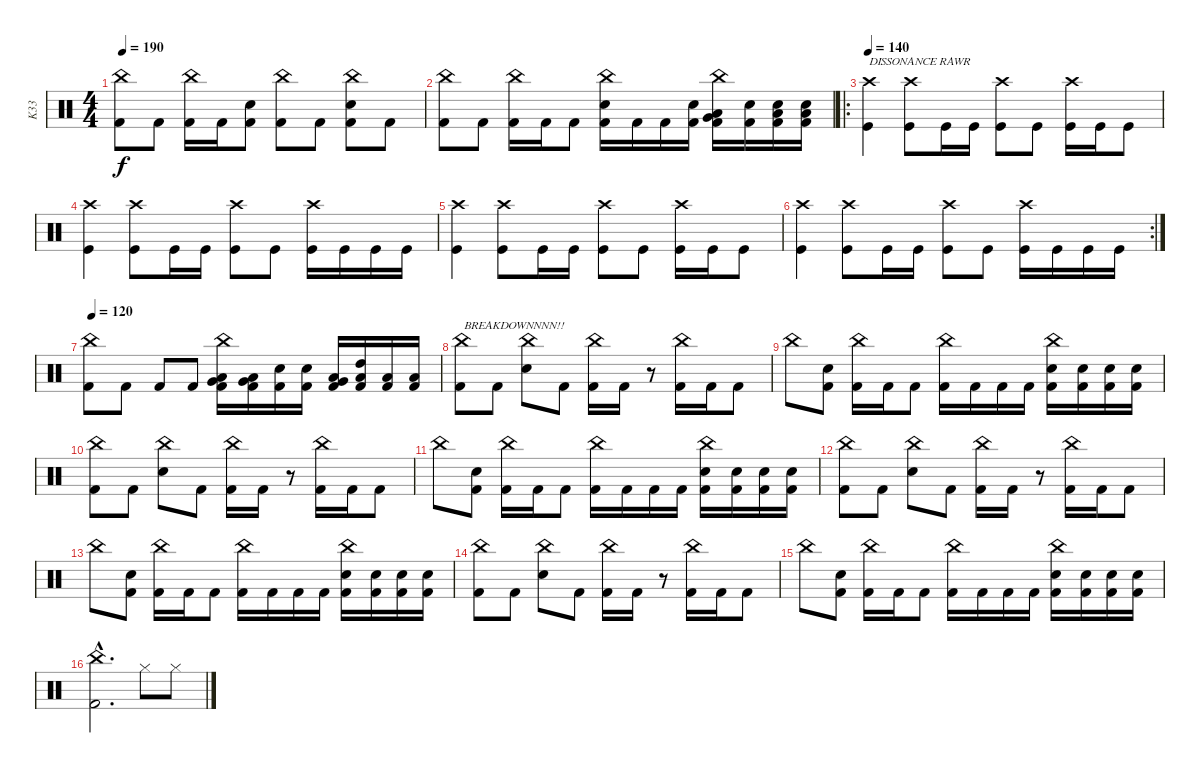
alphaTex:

\track ("K33" "K33") {instrument percussion}
\staff {score}
\articulation defaults
\ts (4 4)
\tempo 190
\clef neutral
\ks c
("China (hit)" "Kick (hit) 2").8{dy f} "Kick (hit) 2".8 ("China (hit)" "Kick (hit) 2").16 "Kick (hit) 2".16 ("Electric Snare (hit)" "Kick (hit) 2").8 ("China (hit)" "Kick (hit) 2").8 "Kick (hit) 2".8 ("China (hit)" "Electric Snare (hit)" "Kick (hit) 2").8 "Kick (hit) 2".8 |
("China (hit)" "Kick (hit) 2").8 "Kick (hit) 2".8 ("China (hit)" "Kick (hit) 2").16 "Kick (hit) 2".16 "Kick (hit) 2".8 ("China (hit)" "Electric Snare (hit)" "Kick (hit) 2").16 "Kick (hit) 2".16 "Kick (hit) 2".16 ("Electric Snare (hit)" "Kick (hit) 2").16 ("China (hit)" "Very Low Tom (hit)" "Low Floor Tom (hit)" "Kick (hit) 2").16 ("Electric Snare (hit)" "Kick (hit) 2").16 ("Low Floor Tom (hit)" "Electric Snare (hit)" "Kick (hit) 2").16 ("Low Floor Tom (hit)" "Electric Snare (hit)" "Kick (hit) 2").16 |
\ro
\tempo 140
("Crash high (hit)" "Kick (hit)").4{txt "DISSONANCE RAWR"} ("Crash high (hit)" "Kick (hit)").8 "Kick (hit)".16 "Kick (hit)".16 ("Crash high (hit)" "Kick (hit)").8 "Kick (hit)".8 ("Crash high (hit)" "Kick (hit)").16 "Kick (hit)".16 "Kick (hit)".8 |
("Crash high (hit)" "Kick (hit)").4 ("Crash high (hit)" "Kick (hit)").8 "Kick (hit)".16 "Kick (hit)".16 ("Crash high (hit)" "Kick (hit)").8 "Kick (hit)".8 ("Crash high (hit)" "Kick (hit)").16 "Kick (hit)".16 "Kick (hit)".16 "Kick (hit)".16 |
("Crash high (hit)" "Kick (hit)").4 ("Crash high (hit)" "Kick (hit)").8 "Kick (hit)".16 "Kick (hit)".16 ("Crash high (hit)" "Kick (hit)").8 "Kick (hit)".8 ("Crash high (hit)" "Kick (hit)").16 "Kick (hit)".16 "Kick (hit)".8 |
\rc 2
("Crash high (hit)" "Kick (hit)").4 ("Crash high (hit)" "Kick (hit)").8 "Kick (hit)".16 "Kick (hit)".16 ("Crash high (hit)" "Kick (hit)").8 "Kick (hit)".8 ("Crash high (hit)" "Kick (hit)").16 "Kick (hit)".16 "Kick (hit)".16 "Kick (hit)".16 |
\tempo 120
("China (hit)" "Kick (hit) 2").8 "Kick (hit) 2".8 "Kick (hit) 2".8 "Kick (hit) 2".8 ("China (hit)" "Very Low Tom (hit)" "Low Floor Tom (hit)" "Kick (hit) 2").16 ("Very Low Tom (hit)" "Low Floor Tom (hit)" "Kick (hit) 2").16 ("Electric Snare (hit)" "Kick (hit) 2").16 ("Electric Snare (hit)" "Kick (hit) 2").16 ("Very Low Tom (hit)" "Low Floor Tom (hit)" "Kick (hit) 2").16 ("High Tom (hit)" "Low Floor Tom (hit)" "Kick (hit) 2").16 ("Low Floor Tom (hit)" "Kick (hit) 2").16 ("Low Floor Tom (hit)" "Kick (hit) 2").16 |
("China (hit)" "Kick (hit) 2").8{txt "BREAKDOWNNNN!!"} "Kick (hit) 2".8 ("China (hit)" "Snare (hit) 2").8 "Kick (hit) 2".8 ("China (hit)" "Kick (hit) 2").16 "Kick (hit) 2".16 r.8 ("China (hit)" "Kick (hit) 2").16 "Kick (hit) 2".16 "Kick (hit) 2".8 |
"China (hit)".8 ("Electric Snare (hit)" "Kick (hit) 2").8 ("China (hit)" "Kick (hit) 2").16 "Kick (hit) 2".16 "Kick (hit) 2".8 ("China (hit)" "Kick (hit) 2").16 "Kick (hit) 2".16 "Kick (hit) 2".16 "Kick (hit) 2".16 ("China (hit)" "Electric Snare (hit)" "Kick (hit) 2").16 ("Electric Snare (hit)" "Kick (hit) 2").16 ("Electric Snare (hit)" "Kick (hit) 2").16 ("Electric Snare (hit)" "Kick (hit) 2").16 |
("China (hit)" "Kick (hit) 2").8 "Kick (hit) 2".8 ("China (hit)" "Snare (hit) 2").8 "Kick (hit) 2".8 ("China (hit)" "Kick (hit) 2").16 "Kick (hit) 2".16 r.8 ("China (hit)" "Kick (hit) 2").16 "Kick (hit) 2".16 "Kick (hit) 2".8 |
"China (hit)".8 ("Electric Snare (hit)" "Kick (hit) 2").8 ("China (hit)" "Kick (hit) 2").16 "Kick (hit) 2".16 "Kick (hit) 2".8 ("China (hit)" "Kick (hit) 2").16 "Kick (hit) 2".16 "Kick (hit) 2".16 "Kick (hit) 2".16 ("China (hit)" "Electric Snare (hit)" "Kick (hit) 2").16 ("Electric Snare (hit)" "Kick (hit) 2").16 ("Electric Snare (hit)" "Kick (hit) 2").16 ("Electric Snare (hit)" "Kick (hit) 2").16 |
("China (hit)" "Kick (hit) 2").8 "Kick (hit) 2".8 ("China (hit)" "Snare (hit) 2").8 "Kick (hit) 2".8 ("China (hit)" "Kick (hit) 2").16 "Kick (hit) 2".16 r.8 ("China (hit)" "Kick (hit) 2").16 "Kick (hit) 2".16 "Kick (hit) 2".8 |
"China (hit)".8 ("Electric Snare (hit)" "Kick (hit) 2").8 ("China (hit)" "Kick (hit) 2").16 "Kick (hit) 2".16 "Kick (hit) 2".8 ("China (hit)" "Kick (hit) 2").16 "Kick (hit) 2".16 "Kick (hit) 2".16 "Kick (hit) 2".16 ("China (hit)" "Electric Snare (hit)" "Kick (hit) 2").16 ("Electric Snare (hit)" "Kick (hit) 2").16 ("Electric Snare (hit)" "Kick (hit) 2").16 ("Electric Snare (hit)" "Kick (hit) 2").16 |
("China (hit)" "Kick (hit) 2").8 "Kick (hit) 2".8 ("China (hit)" "Snare (hit) 2").8 "Kick (hit) 2".8 ("China (hit)" "Kick (hit) 2").16 "Kick (hit) 2".16 r.8 ("China (hit)" "Kick (hit) 2").16 "Kick (hit) 2".16 "Kick (hit) 2".8 |
"China (hit)".8 ("Electric Snare (hit)" "Kick (hit) 2").8 ("China (hit)" "Kick (hit) 2").16 "Kick (hit) 2".16 "Kick (hit) 2".8 ("China (hit)" "Kick (hit) 2").16 "Kick (hit) 2".16 "Kick (hit) 2".16 "Kick (hit) 2".16 ("China (hit)" "Electric Snare (hit)" "Kick (hit) 2").16 ("Electric Snare (hit)" "Kick (hit) 2").16 ("Electric Snare (hit)" "Kick (hit) 2").16 ("Electric Snare (hit)" "Kick (hit) 2").16 |
("China (hit)"{hac} "Kick (hit) 2"{hac}).2{d} "Hi-Hat (closed)".8 "Hi-Hat (closed)".8
